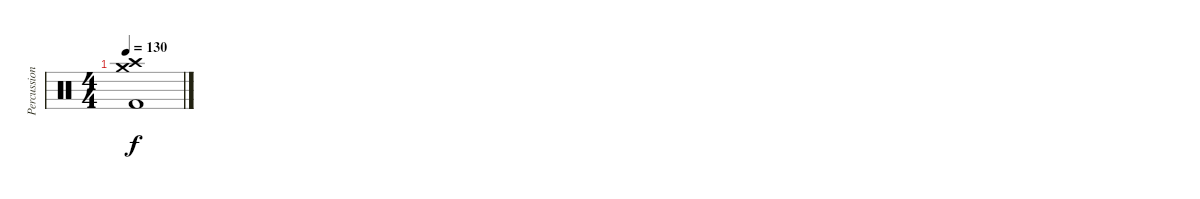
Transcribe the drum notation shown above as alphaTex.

\track ("Percussion" "Percussion") {instrument percussion}
\staff {score}
\articulation defaults
\ts (4 4)
\tempo 130
\clef neutral
\ks c
("Crash high (hit)" "Crash medium (hit)" "Kick (hit) 2").1{dy f}
